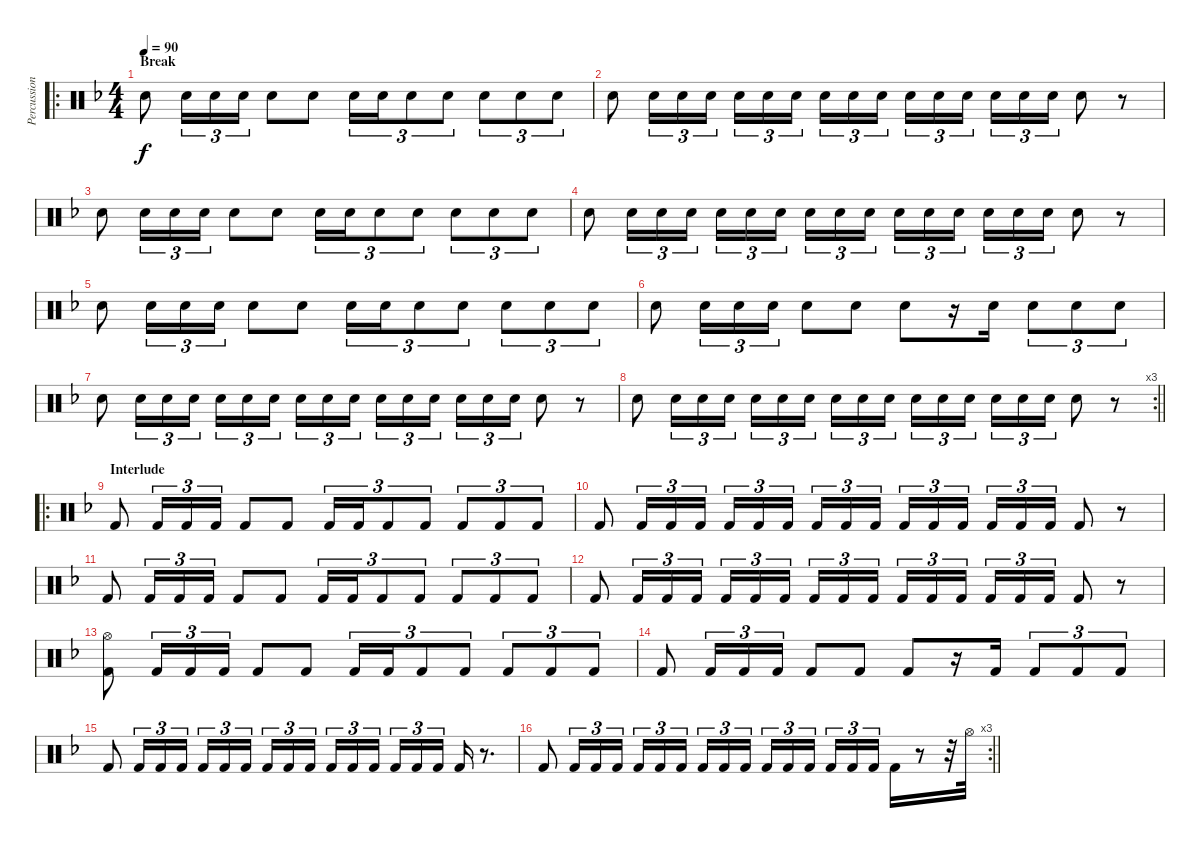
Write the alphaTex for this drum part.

\track ("Percussion" "Percussion") {instrument percussion}
\staff {score}
\articulation defaults
\ro
\ts (4 4)
\section ("" "Break")
\tempo 90
\clef neutral
\ks f "Electric Snare (hit)".8{dy f} "Electric Snare (hit)".16{tu (3 2)} "Electric Snare (hit)".16{tu (3 2)} "Electric Snare (hit)".16{tu (3 2)} "Electric Snare (hit)".8 "Electric Snare (hit)".8 "Electric Snare (hit)".16{tu (3 2)} "Electric Snare (hit)".16{tu (3 2)} "Electric Snare (hit)".8{tu (3 2)} "Electric Snare (hit)".8{tu (3 2)} "Electric Snare (hit)".8{tu (3 2)} "Electric Snare (hit)".8{tu (3 2)} "Electric Snare (hit)".8{tu (3 2)}
|
"Electric Snare (hit)".8 "Electric Snare (hit)".16{tu (3 2)} "Electric Snare (hit)".16{tu (3 2)} "Electric Snare (hit)".16{tu (3 2)} "Electric Snare (hit)".16{tu (3 2)} "Electric Snare (hit)".16{tu (3 2)} "Electric Snare (hit)".16{tu (3 2) beam splitsecondary} "Electric Snare (hit)".16{tu (3 2)} "Electric Snare (hit)".16{tu (3 2)} "Electric Snare (hit)".16{tu (3 2)} "Electric Snare (hit)".16{tu (3 2)} "Electric Snare (hit)".16{tu (3 2)} "Electric Snare (hit)".16{tu (3 2) beam splitsecondary} "Electric Snare (hit)".16{tu (3 2)} "Electric Snare (hit)".16{tu (3 2)} "Electric Snare (hit)".16{tu (3 2)} "Electric Snare (hit)".8 r.8 |
"Electric Snare (hit)".8 "Electric Snare (hit)".16{tu (3 2)} "Electric Snare (hit)".16{tu (3 2)} "Electric Snare (hit)".16{tu (3 2)} "Electric Snare (hit)".8 "Electric Snare (hit)".8 "Electric Snare (hit)".16{tu (3 2)} "Electric Snare (hit)".16{tu (3 2)} "Electric Snare (hit)".8{tu (3 2)} "Electric Snare (hit)".8{tu (3 2)} "Electric Snare (hit)".8{tu (3 2)} "Electric Snare (hit)".8{tu (3 2)} "Electric Snare (hit)".8{tu (3 2)} |
"Electric Snare (hit)".8 "Electric Snare (hit)".16{tu (3 2)} "Electric Snare (hit)".16{tu (3 2)} "Electric Snare (hit)".16{tu (3 2)} "Electric Snare (hit)".16{tu (3 2)} "Electric Snare (hit)".16{tu (3 2)} "Electric Snare (hit)".16{tu (3 2) beam splitsecondary} "Electric Snare (hit)".16{tu (3 2)} "Electric Snare (hit)".16{tu (3 2)} "Electric Snare (hit)".16{tu (3 2)} "Electric Snare (hit)".16{tu (3 2)} "Electric Snare (hit)".16{tu (3 2)} "Electric Snare (hit)".16{tu (3 2) beam splitsecondary} "Electric Snare (hit)".16{tu (3 2)} "Electric Snare (hit)".16{tu (3 2)} "Electric Snare (hit)".16{tu (3 2)} "Electric Snare (hit)".8 r.8 |
"Electric Snare (hit)".8 "Electric Snare (hit)".16{tu (3 2)} "Electric Snare (hit)".16{tu (3 2)} "Electric Snare (hit)".16{tu (3 2)} "Electric Snare (hit)".8 "Electric Snare (hit)".8 "Electric Snare (hit)".16{tu (3 2)} "Electric Snare (hit)".16{tu (3 2)} "Electric Snare (hit)".8{tu (3 2)} "Electric Snare (hit)".8{tu (3 2)} "Electric Snare (hit)".8{tu (3 2)} "Electric Snare (hit)".8{tu (3 2)} "Electric Snare (hit)".8{tu (3 2)} |
"Electric Snare (hit)".8 "Electric Snare (hit)".16{tu (3 2)} "Electric Snare (hit)".16{tu (3 2)} "Electric Snare (hit)".16{tu (3 2)} "Electric Snare (hit)".8 "Electric Snare (hit)".8 "Electric Snare (hit)".8 r.16 "Electric Snare (hit)".16 "Electric Snare (hit)".8{tu (3 2)} "Electric Snare (hit)".8{tu (3 2)} "Electric Snare (hit)".8{tu (3 2)} |
"Electric Snare (hit)".8 "Electric Snare (hit)".16{tu (3 2)} "Electric Snare (hit)".16{tu (3 2)} "Electric Snare (hit)".16{tu (3 2)} "Electric Snare (hit)".16{tu (3 2)} "Electric Snare (hit)".16{tu (3 2)} "Electric Snare (hit)".16{tu (3 2) beam splitsecondary} "Electric Snare (hit)".16{tu (3 2)} "Electric Snare (hit)".16{tu (3 2)} "Electric Snare (hit)".16{tu (3 2)} "Electric Snare (hit)".16{tu (3 2)} "Electric Snare (hit)".16{tu (3 2)} "Electric Snare (hit)".16{tu (3 2) beam splitsecondary} "Electric Snare (hit)".16{tu (3 2)} "Electric Snare (hit)".16{tu (3 2)} "Electric Snare (hit)".16{tu (3 2)} "Electric Snare (hit)".8 r.8 |
\rc 3
\barLineRight lightlight "Electric Snare (hit)".8 "Electric Snare (hit)".16{tu (3 2)} "Electric Snare (hit)".16{tu (3 2)} "Electric Snare (hit)".16{tu (3 2)} "Electric Snare (hit)".16{tu (3 2)} "Electric Snare (hit)".16{tu (3 2)} "Electric Snare (hit)".16{tu (3 2) beam splitsecondary} "Electric Snare (hit)".16{tu (3 2)} "Electric Snare (hit)".16{tu (3 2)} "Electric Snare (hit)".16{tu (3 2)} "Electric Snare (hit)".16{tu (3 2)} "Electric Snare (hit)".16{tu (3 2)} "Electric Snare (hit)".16{tu (3 2) beam splitsecondary} "Electric Snare (hit)".16{tu (3 2)} "Electric Snare (hit)".16{tu (3 2)} "Electric Snare (hit)".16{tu (3 2)} "Electric Snare (hit)".8
r.8 |
\ro
\section ("" "Interlude")
"Kick (hit) 2".8 "Kick (hit) 2".16{tu (3 2)} "Kick (hit) 2".16{tu (3 2)} "Kick (hit) 2".16{tu (3 2)} "Kick (hit) 2".8 "Kick (hit) 2".8 "Kick (hit) 2".16{tu (3 2)} "Kick (hit) 2".16{tu (3 2)} "Kick (hit) 2".8{tu (3 2)} "Kick (hit) 2".8{tu (3 2)} "Kick (hit) 2".8{tu (3 2)} "Kick (hit) 2".8{tu (3 2)} "Kick (hit) 2".8{tu (3 2)} |
"Kick (hit) 2".8 "Kick (hit) 2".16{tu (3 2)} "Kick (hit) 2".16{tu (3 2)} "Kick (hit) 2".16{tu (3 2)} "Kick (hit) 2".16{tu (3 2)} "Kick (hit) 2".16{tu (3 2)} "Kick (hit) 2".16{tu (3 2) beam splitsecondary} "Kick (hit) 2".16{tu (3 2)} "Kick (hit) 2".16{tu (3 2)} "Kick (hit) 2".16{tu (3 2)} "Kick (hit) 2".16{tu (3 2)} "Kick (hit) 2".16{tu (3 2)} "Kick (hit) 2".16{tu (3 2) beam splitsecondary} "Kick (hit) 2".16{tu (3 2)} "Kick (hit) 2".16{tu (3 2)} "Kick (hit) 2".16{tu (3 2)} "Kick (hit) 2".8 r.8 |
"Kick (hit) 2".8 "Kick (hit) 2".16{tu (3 2)} "Kick (hit) 2".16{tu (3 2)} "Kick (hit) 2".16{tu (3 2)} "Kick (hit) 2".8 "Kick (hit) 2".8 "Kick (hit) 2".16{tu (3 2)} "Kick (hit) 2".16{tu (3 2)} "Kick (hit) 2".8{tu (3 2)} "Kick (hit) 2".8{tu (3 2)} "Kick (hit) 2".8{tu (3 2)} "Kick (hit) 2".8{tu (3 2)} "Kick (hit) 2".8{tu (3 2)} |
"Kick (hit) 2".8 "Kick (hit) 2".16{tu (3 2)} "Kick (hit) 2".16{tu (3 2)} "Kick (hit) 2".16{tu (3 2)} "Kick (hit) 2".16{tu (3 2)} "Kick (hit) 2".16{tu (3 2)} "Kick (hit) 2".16{tu (3 2) beam splitsecondary} "Kick (hit) 2".16{tu (3 2)} "Kick (hit) 2".16{tu (3 2)} "Kick (hit) 2".16{tu (3 2)} "Kick (hit) 2".16{tu (3 2)} "Kick (hit) 2".16{tu (3 2)} "Kick (hit) 2".16{tu (3 2) beam splitsecondary} "Kick (hit) 2".16{tu (3 2)} "Kick (hit) 2".16{tu (3 2)} "Kick (hit) 2".16{tu (3 2)} "Kick (hit) 2".8 r.8 |
("Hi-Hat (open)" "Kick (hit) 2").8 "Kick (hit) 2".16{tu (3 2)} "Kick (hit) 2".16{tu (3 2)} "Kick (hit) 2".16{tu (3 2)} "Kick (hit) 2".8 "Kick (hit) 2".8 "Kick (hit) 2".16{tu (3 2)} "Kick (hit) 2".16{tu (3 2)} "Kick (hit) 2".8{tu (3 2)} "Kick (hit) 2".8{tu (3 2)} "Kick (hit) 2".8{tu (3 2)} "Kick (hit) 2".8{tu (3 2)} "Kick (hit) 2".8{tu (3 2)} |
"Kick (hit) 2".8 "Kick (hit) 2".16{tu (3 2)} "Kick (hit) 2".16{tu (3 2)} "Kick (hit) 2".16{tu (3 2)} "Kick (hit) 2".8 "Kick (hit) 2".8 "Kick (hit) 2".8 r.16 "Kick (hit) 2".16 "Kick (hit) 2".8{tu (3 2)} "Kick (hit) 2".8{tu (3 2)} "Kick (hit) 2".8{tu (3 2)} |
"Kick (hit) 2".8 "Kick (hit) 2".16{tu (3 2)} "Kick (hit) 2".16{tu (3 2)} "Kick (hit) 2".16{tu (3 2)} "Kick (hit) 2".16{tu (3 2)} "Kick (hit) 2".16{tu (3 2)} "Kick (hit) 2".16{tu (3 2) beam splitsecondary} "Kick (hit) 2".16{tu (3 2)} "Kick (hit) 2".16{tu (3 2)} "Kick (hit) 2".16{tu (3 2)} "Kick (hit) 2".16{tu (3 2)} "Kick (hit) 2".16{tu (3 2)} "Kick (hit) 2".16{tu (3 2) beam splitsecondary} "Kick (hit) 2".16{tu (3 2)} "Kick (hit) 2".16{tu (3 2)} "Kick (hit) 2".16{tu (3 2)} "Kick (hit) 2".16 r.8{d} |
\rc 3
\barLineRight lightlight "Kick (hit) 2".8 "Kick (hit) 2".16{tu (3 2)} "Kick (hit) 2".16{tu (3 2)} "Kick (hit) 2".16{tu (3 2)} "Kick (hit) 2".16{tu (3 2)} "Kick (hit) 2".16{tu (3 2)} "Kick (hit) 2".16{tu (3 2) beam splitsecondary} "Kick (hit) 2".16{tu (3 2)} "Kick (hit) 2".16{tu (3 2)} "Kick (hit) 2".16{tu (3 2)} "Kick (hit) 2".16{tu (3 2)} "Kick (hit) 2".16{tu (3 2)} "Kick (hit) 2".16{tu (3 2) beam splitsecondary} "Kick (hit) 2".16{tu (3 2)} "Kick (hit) 2".16{tu (3 2)} "Kick (hit) 2".16{tu (3 2)} "Kick (hit) 2".16
r.8 r.32 "Hi-Hat (open)".32
